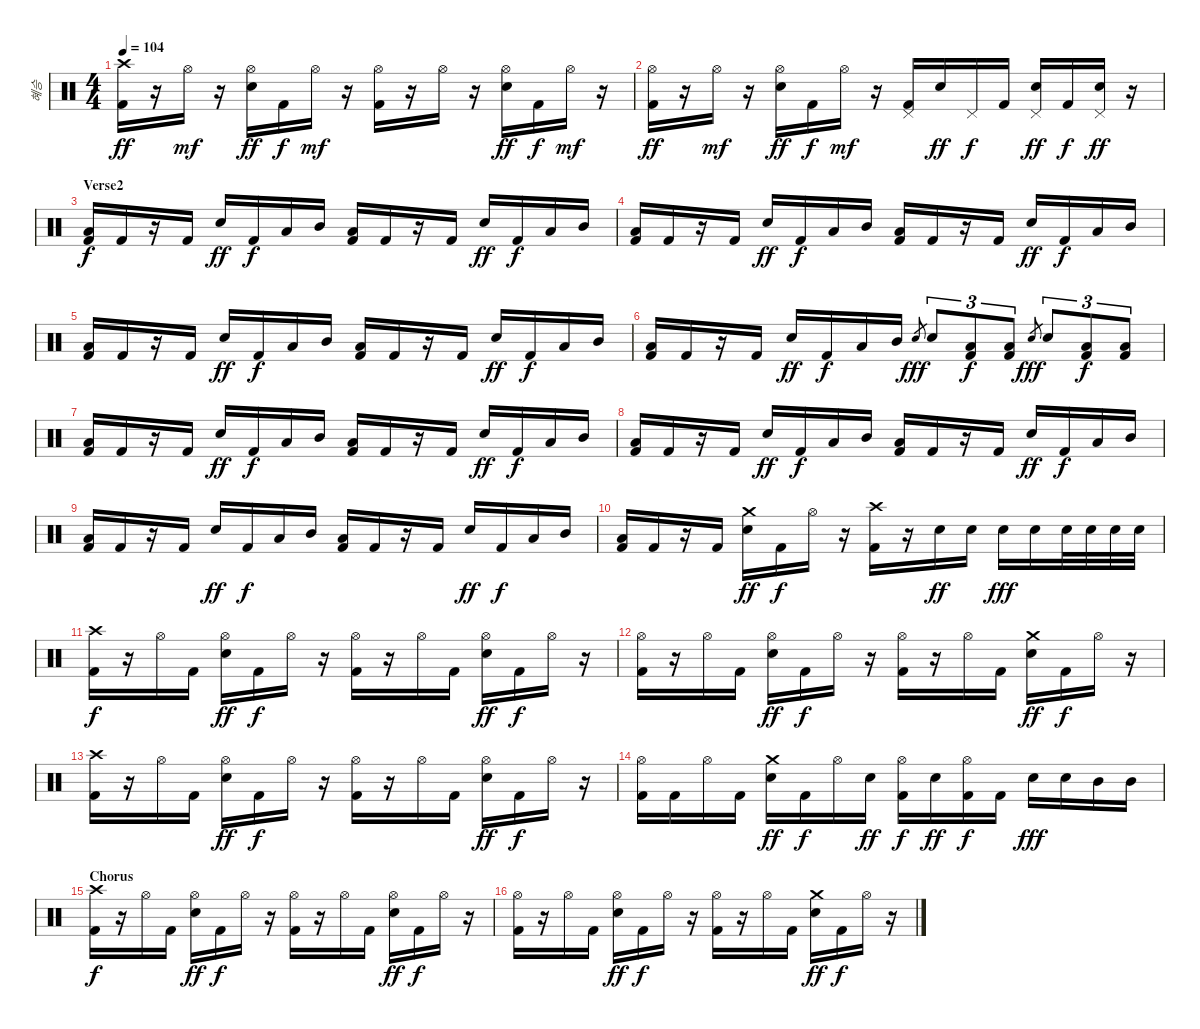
\track ("혜승" "혜승") {instrument percussion}
\staff {score}
\articulation defaults
\ts (4 4)
\tempo 104
\clef neutral
\ks c
("Crash high (hit)" "Kick (hit) 2").16{dy ff} r.16 "Hi-Hat (open)".16{dy mf} r.16 ("Hi-Hat (open)" "Electric Snare (hit)").16{dy ff} "Kick (hit) 2".16{dy f} "Hi-Hat (open)".16{dy mf} r.16 ("Hi-Hat (open)" "Kick (hit) 2").16 r.16 "Hi-Hat (open)".16 r.16 ("Hi-Hat (open)" "Electric Snare (hit)").16{dy ff} "Kick (hit) 2".16{dy f} "Hi-Hat (open)".16{dy mf} r.16 |
("Hi-Hat (open)" "Kick (hit) 2").16{dy ff} r.16 "Hi-Hat (open)".16{dy mf} r.16 ("Hi-Hat (open)" "Electric Snare (hit)").16{dy ff} "Kick (hit) 2".16{dy f} "Hi-Hat (open)".16{dy mf} r.16 ("Pedal Hi-Hat (hit)" "Kick (hit) 2").16 "Electric Snare (hit)".16{dy ff} "Pedal Hi-Hat (hit)".16{dy f} "Kick (hit) 2".16 ("Pedal Hi-Hat (hit)" "Electric Snare (hit)").16{dy ff} "Kick (hit) 2".16{dy f} ("Pedal Hi-Hat (hit)" "Electric Snare (hit)").16{dy ff} r.16 |
\section ("" "Verse2")
("Low Tom (hit)" "Kick (hit) 2").16{dy f} "Kick (hit) 2".16 r.16 "Kick (hit) 2".16 "Electric Snare (hit)".16{dy ff} "Kick (hit) 2".16{dy f} "Low Tom (hit)".16 "Mid Tom (hit)".16 ("Low Tom (hit)" "Kick (hit) 2").16 "Kick (hit) 2".16 r.16 "Kick (hit) 2".16 "Electric Snare (hit)".16{dy ff} "Kick (hit) 2".16{dy f} "Low Tom (hit)".16 "Mid Tom (hit)".16 |
("Low Tom (hit)" "Kick (hit) 2").16 "Kick (hit) 2".16 r.16 "Kick (hit) 2".16 "Electric Snare (hit)".16{dy ff} "Kick (hit) 2".16{dy f} "Low Tom (hit)".16 "Mid Tom (hit)".16 ("Low Tom (hit)" "Kick (hit) 2").16 "Kick (hit) 2".16 r.16 "Kick (hit) 2".16 "Electric Snare (hit)".16{dy ff} "Kick (hit) 2".16{dy f} "Low Tom (hit)".16 "Mid Tom (hit)".16 |
("Low Tom (hit)" "Kick (hit) 2").16 "Kick (hit) 2".16 r.16 "Kick (hit) 2".16 "Electric Snare (hit)".16{dy ff} "Kick (hit) 2".16{dy f} "Low Tom (hit)".16 "Mid Tom (hit)".16 ("Low Tom (hit)" "Kick (hit) 2").16 "Kick (hit) 2".16 r.16 "Kick (hit) 2".16 "Electric Snare (hit)".16{dy ff} "Kick (hit) 2".16{dy f} "Low Tom (hit)".16 "Mid Tom (hit)".16 |
("Low Tom (hit)" "Kick (hit) 2").16 "Kick (hit) 2".16 r.16 "Kick (hit) 2".16 "Electric Snare (hit)".16{dy ff} "Kick (hit) 2".16{dy f} "Low Tom (hit)".16 "Mid Tom (hit)".16 "Electric Snare (hit)".8{gr dy fff} "Electric Snare (hit)".8{tu (3 2)} ("Low Tom (hit)" "Kick (hit) 2").8{tu (3 2) dy f} ("Low Tom (hit)" "Kick (hit) 2").8{tu (3 2)} "Electric Snare (hit)".8{gr dy fff} "Electric Snare (hit)".8{tu (3 2)} ("Low Tom (hit)" "Kick (hit) 2").8{tu (3 2) dy f} ("Low Tom (hit)" "Kick (hit) 2").8{tu (3 2)} |
("Low Tom (hit)" "Kick (hit) 2").16 "Kick (hit) 2".16 r.16 "Kick (hit) 2".16 "Electric Snare (hit)".16{dy ff} "Kick (hit) 2".16{dy f} "Low Tom (hit)".16 "Mid Tom (hit)".16 ("Low Tom (hit)" "Kick (hit) 2").16 "Kick (hit) 2".16 r.16 "Kick (hit) 2".16 "Electric Snare (hit)".16{dy ff} "Kick (hit) 2".16{dy f} "Low Tom (hit)".16 "Mid Tom (hit)".16 |
("Low Tom (hit)" "Kick (hit) 2").16 "Kick (hit) 2".16 r.16 "Kick (hit) 2".16 "Electric Snare (hit)".16{dy ff} "Kick (hit) 2".16{dy f} "Low Tom (hit)".16 "Mid Tom (hit)".16 ("Low Tom (hit)" "Kick (hit) 2").16 "Kick (hit) 2".16 r.16 "Kick (hit) 2".16 "Electric Snare (hit)".16{dy ff} "Kick (hit) 2".16{dy f} "Low Tom (hit)".16 "Mid Tom (hit)".16 |
("Low Tom (hit)" "Kick (hit) 2").16 "Kick (hit) 2".16 r.16 "Kick (hit) 2".16 "Electric Snare (hit)".16{dy ff} "Kick (hit) 2".16{dy f} "Low Tom (hit)".16 "Mid Tom (hit)".16 ("Low Tom (hit)" "Kick (hit) 2").16 "Kick (hit) 2".16 r.16 "Kick (hit) 2".16 "Electric Snare (hit)".16{dy ff} "Kick (hit) 2".16{dy f} "Low Tom (hit)".16 "Mid Tom (hit)".16 |
("Low Tom (hit)" "Kick (hit) 2").16 "Kick (hit) 2".16 r.16 "Kick (hit) 2".16 ("Crash medium (hit)" "Electric Snare (hit)").16{dy ff} "Kick (hit) 2".16{dy f} "Hi-Hat (open)".16 r.16 ("Crash high (hit)" "Kick (hit) 2").16 r.16 "Electric Snare (hit)".16{dy ff} "Electric Snare (hit)".16 "Electric Snare (hit)".16{dy fff} "Electric Snare (hit)".16 "Electric Snare (hit)".32 "Electric Snare (hit)".32 "Electric Snare (hit)".32 "Electric Snare (hit)".32 |
("Crash high (hit)" "Kick (hit) 2").16{dy f} r.16 "Hi-Hat (open)".16 "Kick (hit) 2".16 ("Hi-Hat (open)" "Electric Snare (hit)").16{dy ff} "Kick (hit) 2".16{dy f} "Hi-Hat (open)".16 r.16 ("Hi-Hat (open)" "Kick (hit) 2").16 r.16 "Hi-Hat (open)".16 "Kick (hit) 2".16 ("Hi-Hat (open)" "Electric Snare (hit)").16{dy ff} "Kick (hit) 2".16{dy f} "Hi-Hat (open)".16 r.16 |
("Hi-Hat (open)" "Kick (hit) 2").16 r.16 "Hi-Hat (open)".16 "Kick (hit) 2".16 ("Hi-Hat (open)" "Electric Snare (hit)").16{dy ff} "Kick (hit) 2".16{dy f} "Hi-Hat (open)".16 r.16 ("Hi-Hat (open)" "Kick (hit) 2").16 r.16 "Hi-Hat (open)".16 "Kick (hit) 2".16 ("Crash medium (hit)" "Electric Snare (hit)").16{dy ff} "Kick (hit) 2".16{dy f} "Hi-Hat (open)".16 r.16 |
("Crash high (hit)" "Kick (hit) 2").16 r.16 "Hi-Hat (open)".16 "Kick (hit) 2".16 ("Hi-Hat (open)" "Electric Snare (hit)").16{dy ff} "Kick (hit) 2".16{dy f} "Hi-Hat (open)".16 r.16 ("Hi-Hat (open)" "Kick (hit) 2").16 r.16 "Hi-Hat (open)".16 "Kick (hit) 2".16 ("Hi-Hat (open)" "Electric Snare (hit)").16{dy ff} "Kick (hit) 2".16{dy f} "Hi-Hat (open)".16 r.16 |
("Hi-Hat (open)" "Kick (hit) 2").16 "Kick (hit) 2".16 "Hi-Hat (open)".16 "Kick (hit) 2".16 ("Crash medium (hit)" "Electric Snare (hit)").16{dy ff} "Kick (hit) 2".16{dy f} "Hi-Hat (open)".16 "Electric Snare (hit)".16{dy ff} ("Hi-Hat (open)" "Kick (hit) 2").16{dy f} "Electric Snare (hit)".16{dy ff} ("Hi-Hat (open)" "Kick (hit) 2").16{dy f} "Kick (hit) 2".16 "Electric Snare (hit)".16{dy fff} "Electric Snare (hit)".16 "Mid Tom (hit)".16 "Mid Tom (hit)".16 |
\section ("" "Chorus")
("Crash high (hit)" "Kick (hit) 2").16{dy f} r.16 "Hi-Hat (open)".16 "Kick (hit) 2".16 ("Hi-Hat (open)" "Electric Snare (hit)").16{dy ff} "Kick (hit) 2".16{dy f} "Hi-Hat (open)".16 r.16 ("Hi-Hat (open)" "Kick (hit) 2").16 r.16 "Hi-Hat (open)".16 "Kick (hit) 2".16 ("Hi-Hat (open)" "Electric Snare (hit)").16{dy ff} "Kick (hit) 2".16{dy f} "Hi-Hat (open)".16 r.16 |
("Hi-Hat (open)" "Kick (hit) 2").16 r.16 "Hi-Hat (open)".16 "Kick (hit) 2".16 ("Hi-Hat (open)" "Electric Snare (hit)").16{dy ff} "Kick (hit) 2".16{dy f} "Hi-Hat (open)".16 r.16 ("Hi-Hat (open)" "Kick (hit) 2").16 r.16 "Hi-Hat (open)".16 "Kick (hit) 2".16 ("Crash medium (hit)" "Electric Snare (hit)").16{dy ff} "Kick (hit) 2".16{dy f} "Hi-Hat (open)".16 r.16
